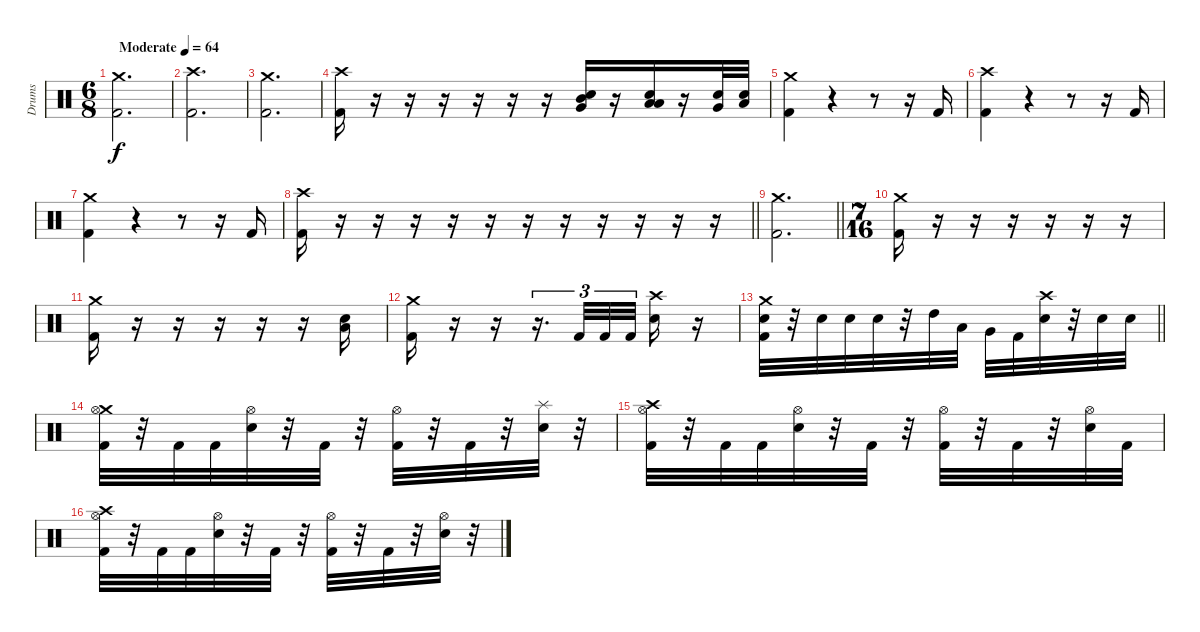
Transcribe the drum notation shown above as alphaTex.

\track ("Drums" "Drums") {instrument percussion}
\staff {score}
\articulation defaults
\ts (6 8)
\section ("" "")
\tempo (64 "Moderate")
\clef neutral
\ks c
("Crash medium (hit)" "Kick (hit) 2").2{d dy f} |
("Crash high (hit)" "Kick (hit) 2").2{d} |
("Crash medium (hit)" "Kick (hit) 2").2{d} |
("Crash high (hit)" "Kick (hit) 2").16 r.16 r.16 r.16 r.16 r.16 r.16 ("Electric Snare (hit)" "Mid Tom (hit)" "Very Low Tom (hit)").16 r.16 ("Electric Snare (hit)" "Low Tom (hit)" "Low Floor Tom (hit)").16 r.16 ("Electric Snare (hit)" "Very Low Tom (hit)").32 ("Electric Snare (hit)" "Low Floor Tom (hit)").32 |
("Crash medium (hit)" "Kick (hit) 2").4 r.4 r.8 r.16 "Kick (hit) 2".16 |
("Crash high (hit)" "Kick (hit) 2").4 r.4 r.8 r.16 "Kick (hit) 2".16 |
("Crash medium (hit)" "Kick (hit) 2").4 r.4 r.8 r.16 "Kick (hit) 2".16 |
\barLineRight lightlight
("Crash high (hit)" "Kick (hit) 2").16 r.16 r.16 r.16 r.16 r.16 r.16 r.16 r.16 r.16 r.16 r.16 |
\section ("" "")
\barLineRight lightlight
("Crash medium (hit)" "Kick (hit) 2").2{d} |
\ts (7 16)
\section ("" "")
("Crash medium (hit)" "Kick (hit) 2").16 r.16 r.16 r.16 r.16 r.16 r.16 |
("Crash medium (hit)" "Kick (hit) 2").16 r.16 r.16 r.16 r.16 r.16 ("Electric Snare (hit)" "Low Tom (hit)").16 |
("Crash medium (hit)" "Kick (hit) 2").16 r.16 r.16 r.16{d tu (3 2)} "Kick (hit) 2".32{tu (3 2)} "Kick (hit) 2".32{tu (3 2)} "Kick (hit) 2".32{tu (3 2)} ("Crash high (hit)" "Electric Snare (hit)").16 r.16 |
\barLineRight lightlight
("Crash medium (hit)" "Electric Snare (hit)" "Kick (hit) 2").32 r.32 "Electric Snare (hit)".32 "Electric Snare (hit)".32 "Electric Snare (hit)".32 r.32 "High Tom (hit)".32 "Low Tom (hit)".32 "Very Low Tom (hit)".32 "Kick (hit) 2".32 ("Crash high (hit)" "Electric Snare (hit)").32 r.32 "Electric Snare (hit)".32 "Electric Snare (hit)".32 |
\section ("" "")
("Crash medium (hit)" "Hi-Hat (open)" "Kick (hit) 2").32 r.32 "Kick (hit) 2".32 "Kick (hit) 2".32 ("Hi-Hat (open)" "Electric Snare (hit)").32 r.32 "Kick (hit) 2".32 r.32 ("Hi-Hat (open)" "Kick (hit) 2").32 r.32 "Kick (hit) 2".32 r.32 ("Splash (hit)" "Electric Snare (hit)").32 r.32 |
("Crash high (hit)" "Hi-Hat (open)" "Kick (hit) 2").32 r.32 "Kick (hit) 2".32 "Kick (hit) 2".32 ("Hi-Hat (open)" "Electric Snare (hit)").32 r.32 "Kick (hit) 2".32 r.32 ("Hi-Hat (open)" "Kick (hit) 2").32 r.32 "Kick (hit) 2".32 r.32 ("Hi-Hat (open)" "Electric Snare (hit)").32 "Kick (hit) 2".32 |
("Crash high (hit)" "Hi-Hat (open)" "Kick (hit) 2").32 r.32 "Kick (hit) 2".32 "Kick (hit) 2".32 ("Hi-Hat (open)" "Electric Snare (hit)").32 r.32 "Kick (hit) 2".32 r.32 ("Hi-Hat (open)" "Kick (hit) 2").32 r.32 "Kick (hit) 2".32 r.32 ("Hi-Hat (open)" "Electric Snare (hit)").32 r.32
